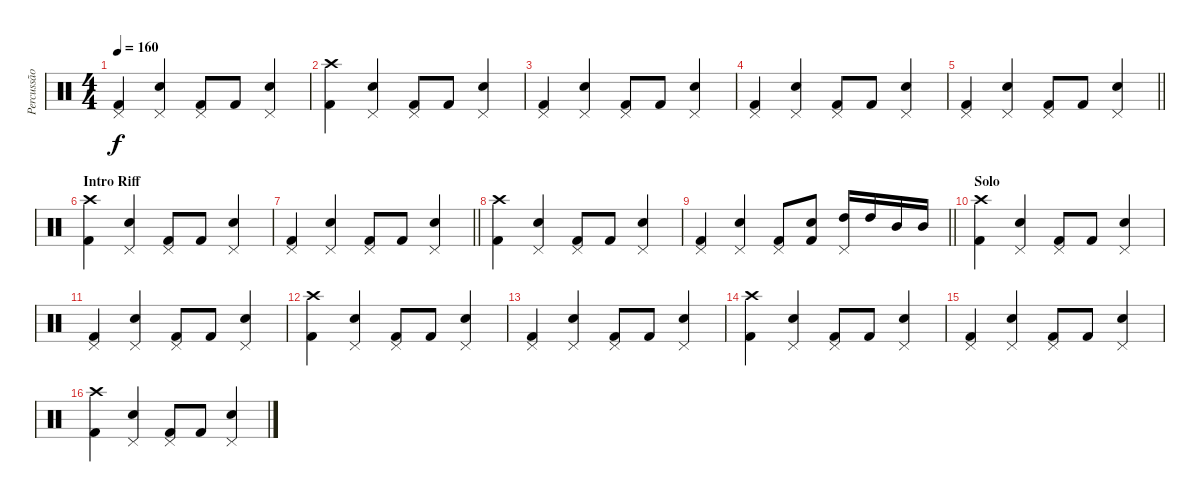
\track ("Percussão" "Percussão") {instrument percussion}
\staff {score}
\articulation defaults
\ts (4 4)
\tempo 160
\clef neutral
\ks c
("Pedal Hi-Hat (hit)" "Kick (hit) 2").4{dy f} ("Pedal Hi-Hat (hit)" "Snare (hit) 2").4 ("Pedal Hi-Hat (hit)" "Kick (hit) 2").8 "Kick (hit) 2".8 ("Pedal Hi-Hat (hit)" "Snare (hit) 2").4 |
("Crash high (hit)" "Kick (hit) 2").4 ("Pedal Hi-Hat (hit)" "Snare (hit) 2").4 ("Pedal Hi-Hat (hit)" "Kick (hit) 2").8 "Kick (hit) 2".8 ("Pedal Hi-Hat (hit)" "Snare (hit) 2").4 |
("Pedal Hi-Hat (hit)" "Kick (hit) 2").4 ("Pedal Hi-Hat (hit)" "Snare (hit) 2").4 ("Pedal Hi-Hat (hit)" "Kick (hit) 2").8 "Kick (hit) 2".8 ("Pedal Hi-Hat (hit)" "Snare (hit) 2").4 |
("Pedal Hi-Hat (hit)" "Kick (hit) 2").4 ("Pedal Hi-Hat (hit)" "Snare (hit) 2").4 ("Pedal Hi-Hat (hit)" "Kick (hit) 2").8 "Kick (hit) 2".8 ("Pedal Hi-Hat (hit)" "Snare (hit) 2").4 |
\barLineRight lightlight
("Pedal Hi-Hat (hit)" "Kick (hit) 2").4 ("Pedal Hi-Hat (hit)" "Snare (hit) 2").4 ("Pedal Hi-Hat (hit)" "Kick (hit) 2").8 "Kick (hit) 2".8 ("Pedal Hi-Hat (hit)" "Snare (hit) 2").4 |
\section ("" "Intro Riff")
("Crash high (hit)" "Kick (hit) 2").4 ("Pedal Hi-Hat (hit)" "Snare (hit) 2").4 ("Pedal Hi-Hat (hit)" "Kick (hit) 2").8 "Kick (hit) 2".8 ("Pedal Hi-Hat (hit)" "Snare (hit) 2").4 |
\barLineRight lightlight
("Pedal Hi-Hat (hit)" "Kick (hit) 2").4 ("Pedal Hi-Hat (hit)" "Snare (hit) 2").4 ("Pedal Hi-Hat (hit)" "Kick (hit) 2").8 "Kick (hit) 2".8 ("Pedal Hi-Hat (hit)" "Snare (hit) 2").4 |
("Crash high (hit)" "Kick (hit) 2").4 ("Pedal Hi-Hat (hit)" "Snare (hit) 2").4 ("Pedal Hi-Hat (hit)" "Kick (hit) 2").8 "Kick (hit) 2".8 ("Pedal Hi-Hat (hit)" "Snare (hit) 2").4 |
\barLineRight lightlight
("Pedal Hi-Hat (hit)" "Kick (hit) 2").4 ("Pedal Hi-Hat (hit)" "Snare (hit) 2").4 ("Pedal Hi-Hat (hit)" "Kick (hit) 2").8 ("Snare (hit) 2" "Kick (hit) 2").8 ("Pedal Hi-Hat (hit)" "High Tom (hit)").16 "High Tom (hit)".16 "Mid Tom (hit)".16 "Mid Tom (hit)".16 |
\section ("" "Solo")
("Crash high (hit)" "Kick (hit) 2").4 ("Pedal Hi-Hat (hit)" "Snare (hit) 2").4 ("Pedal Hi-Hat (hit)" "Kick (hit) 2").8 "Kick (hit) 2".8 ("Pedal Hi-Hat (hit)" "Snare (hit) 2").4 |
("Pedal Hi-Hat (hit)" "Kick (hit) 2").4 ("Pedal Hi-Hat (hit)" "Snare (hit) 2").4 ("Pedal Hi-Hat (hit)" "Kick (hit) 2").8 "Kick (hit) 2".8 ("Pedal Hi-Hat (hit)" "Snare (hit) 2").4 |
("Crash high (hit)" "Kick (hit) 2").4 ("Pedal Hi-Hat (hit)" "Snare (hit) 2").4 ("Pedal Hi-Hat (hit)" "Kick (hit) 2").8 "Kick (hit) 2".8 ("Pedal Hi-Hat (hit)" "Snare (hit) 2").4 |
("Pedal Hi-Hat (hit)" "Kick (hit) 2").4 ("Pedal Hi-Hat (hit)" "Snare (hit) 2").4 ("Pedal Hi-Hat (hit)" "Kick (hit) 2").8 "Kick (hit) 2".8 ("Pedal Hi-Hat (hit)" "Snare (hit) 2").4 |
("Crash high (hit)" "Kick (hit) 2").4 ("Pedal Hi-Hat (hit)" "Snare (hit) 2").4 ("Pedal Hi-Hat (hit)" "Kick (hit) 2").8 "Kick (hit) 2".8 ("Pedal Hi-Hat (hit)" "Snare (hit) 2").4 |
("Pedal Hi-Hat (hit)" "Kick (hit) 2").4 ("Pedal Hi-Hat (hit)" "Snare (hit) 2").4 ("Pedal Hi-Hat (hit)" "Kick (hit) 2").8 "Kick (hit) 2".8 ("Pedal Hi-Hat (hit)" "Snare (hit) 2").4 |
("Crash high (hit)" "Kick (hit) 2").4 ("Pedal Hi-Hat (hit)" "Snare (hit) 2").4 ("Pedal Hi-Hat (hit)" "Kick (hit) 2").8 "Kick (hit) 2".8 ("Pedal Hi-Hat (hit)" "Snare (hit) 2").4
